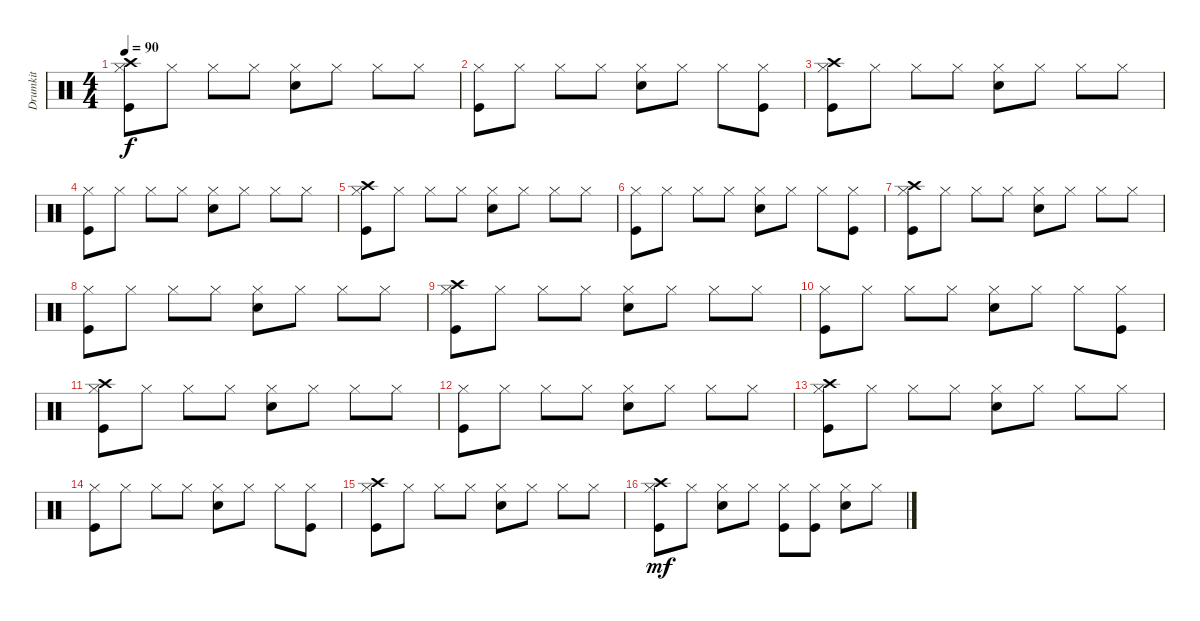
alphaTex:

\track ("Drumkit" "Drumkit") {instrument percussion}
\staff {score}
\articulation defaults
\ts (4 4)
\tempo 90
\clef neutral
\ks c
("Crash high (hit)" "Hi-Hat (closed)" "Kick (hit)").8{dy f} "Hi-Hat (closed)".8 "Hi-Hat (closed)".8 "Hi-Hat (closed)".8 ("Hi-Hat (closed)" "Snare (hit) 2").8 "Hi-Hat (closed)".8 "Hi-Hat (closed)".8 "Hi-Hat (closed)".8 |
("Hi-Hat (closed)" "Kick (hit)").8 "Hi-Hat (closed)".8 "Hi-Hat (closed)".8 "Hi-Hat (closed)".8 ("Hi-Hat (closed)" "Snare (hit) 2").8 "Hi-Hat (closed)".8 "Hi-Hat (closed)".8 ("Hi-Hat (closed)" "Kick (hit)").8 |
("Crash high (hit)" "Hi-Hat (closed)" "Kick (hit)").8 "Hi-Hat (closed)".8 "Hi-Hat (closed)".8 "Hi-Hat (closed)".8 ("Hi-Hat (closed)" "Snare (hit) 2").8 "Hi-Hat (closed)".8 "Hi-Hat (closed)".8 "Hi-Hat (closed)".8 |
("Hi-Hat (closed)" "Kick (hit)").8 "Hi-Hat (closed)".8 "Hi-Hat (closed)".8 "Hi-Hat (closed)".8 ("Hi-Hat (closed)" "Snare (hit) 2").8 "Hi-Hat (closed)".8 "Hi-Hat (closed)".8 "Hi-Hat (closed)".8 |
("Crash high (hit)" "Hi-Hat (closed)" "Kick (hit)").8 "Hi-Hat (closed)".8 "Hi-Hat (closed)".8 "Hi-Hat (closed)".8 ("Hi-Hat (closed)" "Snare (hit) 2").8 "Hi-Hat (closed)".8 "Hi-Hat (closed)".8 "Hi-Hat (closed)".8 |
("Hi-Hat (closed)" "Kick (hit)").8 "Hi-Hat (closed)".8 "Hi-Hat (closed)".8 "Hi-Hat (closed)".8 ("Hi-Hat (closed)" "Snare (hit) 2").8 "Hi-Hat (closed)".8 "Hi-Hat (closed)".8 ("Hi-Hat (closed)" "Kick (hit)").8 |
("Crash high (hit)" "Hi-Hat (closed)" "Kick (hit)").8 "Hi-Hat (closed)".8 "Hi-Hat (closed)".8 "Hi-Hat (closed)".8 ("Hi-Hat (closed)" "Snare (hit) 2").8 "Hi-Hat (closed)".8 "Hi-Hat (closed)".8 "Hi-Hat (closed)".8 |
("Hi-Hat (closed)" "Kick (hit)").8 "Hi-Hat (closed)".8 "Hi-Hat (closed)".8 "Hi-Hat (closed)".8 ("Hi-Hat (closed)" "Snare (hit) 2").8 "Hi-Hat (closed)".8 "Hi-Hat (closed)".8 "Hi-Hat (closed)".8 |
("Crash high (hit)" "Hi-Hat (closed)" "Kick (hit)").8 "Hi-Hat (closed)".8 "Hi-Hat (closed)".8 "Hi-Hat (closed)".8 ("Hi-Hat (closed)" "Snare (hit) 2").8 "Hi-Hat (closed)".8 "Hi-Hat (closed)".8 "Hi-Hat (closed)".8 |
("Hi-Hat (closed)" "Kick (hit)").8 "Hi-Hat (closed)".8 "Hi-Hat (closed)".8 "Hi-Hat (closed)".8 ("Hi-Hat (closed)" "Snare (hit) 2").8 "Hi-Hat (closed)".8 "Hi-Hat (closed)".8 ("Hi-Hat (closed)" "Kick (hit)").8 |
("Crash high (hit)" "Hi-Hat (closed)" "Kick (hit)").8 "Hi-Hat (closed)".8 "Hi-Hat (closed)".8 "Hi-Hat (closed)".8 ("Hi-Hat (closed)" "Snare (hit) 2").8 "Hi-Hat (closed)".8 "Hi-Hat (closed)".8 "Hi-Hat (closed)".8 |
("Hi-Hat (closed)" "Kick (hit)").8 "Hi-Hat (closed)".8 "Hi-Hat (closed)".8 "Hi-Hat (closed)".8 ("Hi-Hat (closed)" "Snare (hit) 2").8 "Hi-Hat (closed)".8 "Hi-Hat (closed)".8 "Hi-Hat (closed)".8 |
("Crash high (hit)" "Hi-Hat (closed)" "Kick (hit)").8 "Hi-Hat (closed)".8 "Hi-Hat (closed)".8 "Hi-Hat (closed)".8 ("Hi-Hat (closed)" "Snare (hit) 2").8 "Hi-Hat (closed)".8 "Hi-Hat (closed)".8 "Hi-Hat (closed)".8 |
("Hi-Hat (closed)" "Kick (hit)").8 "Hi-Hat (closed)".8 "Hi-Hat (closed)".8 "Hi-Hat (closed)".8 ("Hi-Hat (closed)" "Snare (hit) 2").8 "Hi-Hat (closed)".8 "Hi-Hat (closed)".8 ("Hi-Hat (closed)" "Kick (hit)").8 |
("Crash high (hit)" "Hi-Hat (closed)" "Kick (hit)").8 "Hi-Hat (closed)".8 "Hi-Hat (closed)".8 "Hi-Hat (closed)".8 ("Hi-Hat (closed)" "Snare (hit) 2").8 "Hi-Hat (closed)".8 "Hi-Hat (closed)".8 "Hi-Hat (closed)".8 |
("Crash high (hit)" "Hi-Hat (closed)" "Kick (hit)").8{dy mf} "Hi-Hat (closed)".8 ("Hi-Hat (closed)" "Snare (hit) 2").8 "Hi-Hat (closed)".8 ("Hi-Hat (closed)" "Kick (hit)").8 ("Hi-Hat (closed)" "Kick (hit)").8 ("Hi-Hat (closed)" "Snare (hit) 2").8 "Hi-Hat (closed)".8
